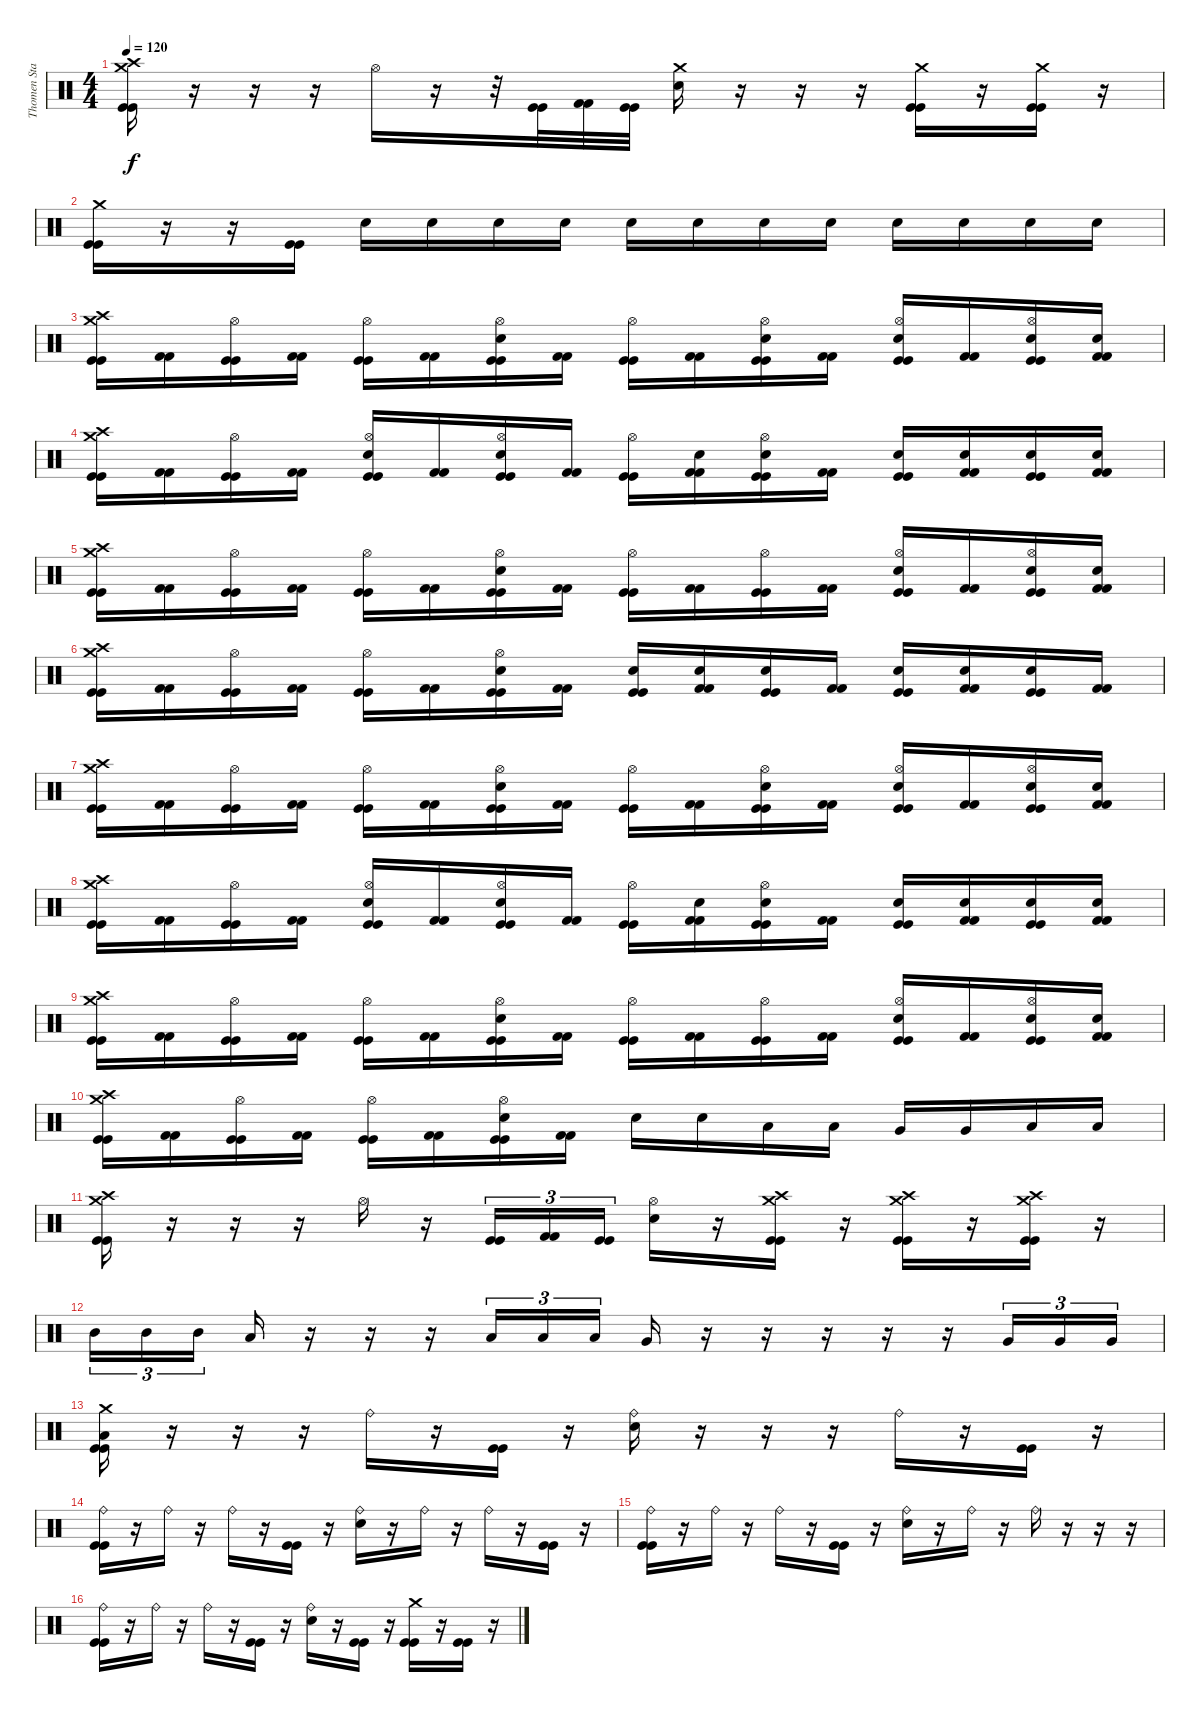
\track ("Thomen Stauch" "Thomen Sta") {instrument percussion}
\staff {score}
\articulation defaults
\ts (4 4)
\tempo 120
\clef neutral
\ks c
("Crash medium (hit)" "Crash high (hit)" "Kick (hit)" "Kick (hit)").16{dy f} r.16 r.16 r.16 "Hi-Hat (open)".16 r.16 r.32 ("Kick (hit)" "Kick (hit)").32 ("Kick (hit) 2" "Kick (hit) 2").32 ("Kick (hit)" "Kick (hit)").32 ("Crash medium (hit)" "Snare (hit) 2").16 r.16 r.16 r.16 ("Crash medium (hit)" "Kick (hit)" "Kick (hit)").16 r.16 ("Crash medium (hit)" "Kick (hit)" "Kick (hit)").16 r.16 |
("Crash medium (hit)" "Kick (hit)" "Kick (hit)").16 r.16 r.16 ("Kick (hit)" "Kick (hit)").16 "Snare (hit) 2".16 "Snare (hit) 2".16 "Snare (hit) 2".16 "Snare (hit) 2".16 "Snare (hit) 2".16 "Snare (hit) 2".16 "Snare (hit) 2".16 "Snare (hit) 2".16 "Snare (hit) 2".16 "Snare (hit) 2".16 "Snare (hit) 2".16 "Snare (hit) 2".16 |
("Crash medium (hit)" "Crash high (hit)" "Kick (hit)" "Kick (hit)").16 ("Kick (hit) 2" "Kick (hit) 2").16 ("Hi-Hat (open)" "Kick (hit)" "Kick (hit)").16 ("Kick (hit) 2" "Kick (hit) 2").16 ("Hi-Hat (open)" "Kick (hit)" "Kick (hit)").16 ("Kick (hit) 2" "Kick (hit) 2").16 ("Hi-Hat (open)" "Snare (hit) 2" "Kick (hit)" "Kick (hit)").16 ("Kick (hit) 2" "Kick (hit) 2").16 ("Hi-Hat (open)" "Kick (hit)" "Kick (hit)").16 ("Kick (hit) 2" "Kick (hit) 2").16 ("Hi-Hat (open)" "Snare (hit) 2" "Kick (hit)" "Kick (hit)").16 ("Kick (hit) 2" "Kick (hit) 2").16 ("Hi-Hat (open)" "Snare (hit) 2" "Kick (hit)" "Kick (hit)").16 ("Kick (hit) 2" "Kick (hit) 2").16 ("Hi-Hat (open)" "Snare (hit) 2" "Kick (hit)" "Kick (hit)").16 ("Snare (hit) 2" "Kick (hit) 2" "Kick (hit) 2").16 |
("Crash medium (hit)" "Crash high (hit)" "Kick (hit)" "Kick (hit)").16 ("Kick (hit) 2" "Kick (hit) 2").16 ("Hi-Hat (open)" "Kick (hit)" "Kick (hit)").16 ("Kick (hit) 2" "Kick (hit) 2").16 ("Hi-Hat (open)" "Snare (hit) 2" "Kick (hit)" "Kick (hit)").16 ("Kick (hit) 2" "Kick (hit) 2").16 ("Hi-Hat (open)" "Snare (hit) 2" "Kick (hit)" "Kick (hit)").16 ("Kick (hit) 2" "Kick (hit) 2").16 ("Hi-Hat (open)" "Kick (hit)" "Kick (hit)").16 ("Snare (hit) 2" "Kick (hit) 2" "Kick (hit) 2").16 ("Hi-Hat (open)" "Snare (hit) 2" "Kick (hit)" "Kick (hit)").16 ("Kick (hit) 2" "Kick (hit) 2").16 ("Snare (hit) 2" "Kick (hit)" "Kick (hit)").16 ("Snare (hit) 2" "Kick (hit) 2" "Kick (hit) 2").16 ("Snare (hit) 2" "Kick (hit)" "Kick (hit)").16 ("Snare (hit) 2" "Kick (hit) 2" "Kick (hit) 2").16 |
("Crash medium (hit)" "Crash high (hit)" "Kick (hit)" "Kick (hit)").16 ("Kick (hit) 2" "Kick (hit) 2").16 ("Hi-Hat (open)" "Kick (hit)" "Kick (hit)").16 ("Kick (hit) 2" "Kick (hit) 2").16 ("Hi-Hat (open)" "Kick (hit)" "Kick (hit)").16 ("Kick (hit) 2" "Kick (hit) 2").16 ("Hi-Hat (open)" "Snare (hit) 2" "Kick (hit)" "Kick (hit)").16 ("Kick (hit) 2" "Kick (hit) 2").16 ("Hi-Hat (open)" "Kick (hit)" "Kick (hit)").16 ("Kick (hit) 2" "Kick (hit) 2").16 ("Hi-Hat (open)" "Kick (hit)" "Kick (hit)").16 ("Kick (hit) 2" "Kick (hit) 2").16 ("Hi-Hat (open)" "Snare (hit) 2" "Kick (hit)" "Kick (hit)").16 ("Kick (hit) 2" "Kick (hit) 2").16 ("Hi-Hat (open)" "Snare (hit) 2" "Kick (hit)" "Kick (hit)").16 ("Snare (hit) 2" "Kick (hit) 2" "Kick (hit) 2").16 |
("Crash medium (hit)" "Crash high (hit)" "Kick (hit)" "Kick (hit)").16 ("Kick (hit) 2" "Kick (hit) 2").16 ("Hi-Hat (open)" "Kick (hit)" "Kick (hit)").16 ("Kick (hit) 2" "Kick (hit) 2").16 ("Hi-Hat (open)" "Kick (hit)" "Kick (hit)").16 ("Kick (hit) 2" "Kick (hit) 2").16 ("Hi-Hat (open)" "Snare (hit) 2" "Kick (hit)" "Kick (hit)").16 ("Kick (hit) 2" "Kick (hit) 2").16 ("Snare (hit) 2" "Kick (hit)" "Kick (hit)").16 ("Snare (hit) 2" "Kick (hit) 2" "Kick (hit) 2").16 ("Snare (hit) 2" "Kick (hit)" "Kick (hit)").16 ("Kick (hit) 2" "Kick (hit) 2").16 ("Snare (hit) 2" "Kick (hit)" "Kick (hit)").16 ("Snare (hit) 2" "Kick (hit) 2" "Kick (hit) 2").16 ("Snare (hit) 2" "Kick (hit)" "Kick (hit)").16 ("Kick (hit) 2" "Kick (hit) 2").16 |
("Crash medium (hit)" "Crash high (hit)" "Kick (hit)" "Kick (hit)").16 ("Kick (hit) 2" "Kick (hit) 2").16 ("Hi-Hat (open)" "Kick (hit)" "Kick (hit)").16 ("Kick (hit) 2" "Kick (hit) 2").16 ("Hi-Hat (open)" "Kick (hit)" "Kick (hit)").16 ("Kick (hit) 2" "Kick (hit) 2").16 ("Hi-Hat (open)" "Snare (hit) 2" "Kick (hit)" "Kick (hit)").16 ("Kick (hit) 2" "Kick (hit) 2").16 ("Hi-Hat (open)" "Kick (hit)" "Kick (hit)").16 ("Kick (hit) 2" "Kick (hit) 2").16 ("Hi-Hat (open)" "Snare (hit) 2" "Kick (hit)" "Kick (hit)").16 ("Kick (hit) 2" "Kick (hit) 2").16 ("Hi-Hat (open)" "Snare (hit) 2" "Kick (hit)" "Kick (hit)").16 ("Kick (hit) 2" "Kick (hit) 2").16 ("Hi-Hat (open)" "Snare (hit) 2" "Kick (hit)" "Kick (hit)").16 ("Snare (hit) 2" "Kick (hit) 2" "Kick (hit) 2").16 |
("Crash medium (hit)" "Crash high (hit)" "Kick (hit)" "Kick (hit)").16 ("Kick (hit) 2" "Kick (hit) 2").16 ("Hi-Hat (open)" "Kick (hit)" "Kick (hit)").16 ("Kick (hit) 2" "Kick (hit) 2").16 ("Hi-Hat (open)" "Snare (hit) 2" "Kick (hit)" "Kick (hit)").16 ("Kick (hit) 2" "Kick (hit) 2").16 ("Hi-Hat (open)" "Snare (hit) 2" "Kick (hit)" "Kick (hit)").16 ("Kick (hit) 2" "Kick (hit) 2").16 ("Hi-Hat (open)" "Kick (hit)" "Kick (hit)").16 ("Snare (hit) 2" "Kick (hit) 2" "Kick (hit) 2").16 ("Hi-Hat (open)" "Snare (hit) 2" "Kick (hit)" "Kick (hit)").16 ("Kick (hit) 2" "Kick (hit) 2").16 ("Snare (hit) 2" "Kick (hit)" "Kick (hit)").16 ("Snare (hit) 2" "Kick (hit) 2" "Kick (hit) 2").16 ("Snare (hit) 2" "Kick (hit)" "Kick (hit)").16 ("Snare (hit) 2" "Kick (hit) 2" "Kick (hit) 2").16 |
("Crash medium (hit)" "Crash high (hit)" "Kick (hit)" "Kick (hit)").16 ("Kick (hit) 2" "Kick (hit) 2").16 ("Hi-Hat (open)" "Kick (hit)" "Kick (hit)").16 ("Kick (hit) 2" "Kick (hit) 2").16 ("Hi-Hat (open)" "Kick (hit)" "Kick (hit)").16 ("Kick (hit) 2" "Kick (hit) 2").16 ("Hi-Hat (open)" "Snare (hit) 2" "Kick (hit)" "Kick (hit)").16 ("Kick (hit) 2" "Kick (hit) 2").16 ("Hi-Hat (open)" "Kick (hit)" "Kick (hit)").16 ("Kick (hit) 2" "Kick (hit) 2").16 ("Hi-Hat (open)" "Kick (hit)" "Kick (hit)").16 ("Kick (hit) 2" "Kick (hit) 2").16 ("Hi-Hat (open)" "Snare (hit) 2" "Kick (hit)" "Kick (hit)").16 ("Kick (hit) 2" "Kick (hit) 2").16 ("Hi-Hat (open)" "Snare (hit) 2" "Kick (hit)" "Kick (hit)").16 ("Snare (hit) 2" "Kick (hit) 2" "Kick (hit) 2").16 |
("Crash medium (hit)" "Crash high (hit)" "Kick (hit)" "Kick (hit)").16 ("Kick (hit) 2" "Kick (hit) 2").16 ("Hi-Hat (open)" "Kick (hit)" "Kick (hit)").16 ("Kick (hit) 2" "Kick (hit) 2").16 ("Hi-Hat (open)" "Kick (hit)" "Kick (hit)").16 ("Kick (hit) 2" "Kick (hit) 2").16 ("Hi-Hat (open)" "Snare (hit) 2" "Kick (hit)" "Kick (hit)").16 ("Kick (hit) 2" "Kick (hit) 2").16 "Snare (hit) 2".16 "Snare (hit) 2".16 "Low Tom (hit)".16 "Low Tom (hit)".16 "Very Low Tom (hit)".16 "Very Low Tom (hit)".16 "Low Floor Tom (hit)".16 "Low Floor Tom (hit)".16 |
("Crash medium (hit)" "Crash high (hit)" "Kick (hit)" "Kick (hit)").16 r.16 r.16 r.16 "Hi-Hat (open)".16 r.16 ("Kick (hit)" "Kick (hit)").16{tu (3 2)} ("Kick (hit) 2" "Kick (hit) 2").16{tu (3 2)} ("Kick (hit)" "Kick (hit)").16{tu (3 2)} ("Hi-Hat (open)" "Snare (hit) 2").16 r.16 ("Crash medium (hit)" "Crash high (hit)" "Kick (hit)" "Kick (hit)").16 r.16 ("Crash medium (hit)" "Crash high (hit)" "Kick (hit)" "Kick (hit)").16 r.16 ("Crash medium (hit)" "Crash high (hit)" "Kick (hit)" "Kick (hit)").16 r.16 |
"Mid Tom (hit)".16{tu (3 2)} "Mid Tom (hit)".16{tu (3 2)} "Mid Tom (hit)".16{tu (3 2)} "Low Tom (hit)".16 r.16 r.16 r.16 "Low Tom (hit)".16{tu (3 2)} "Low Tom (hit)".16{tu (3 2)} "Low Tom (hit)".16{tu (3 2)} "Very Low Tom (hit)".16 r.16 r.16 r.16 r.16 r.16 "Very Low Tom (hit)".16{tu (3 2)} "Very Low Tom (hit)".16{tu (3 2)} "Very Low Tom (hit)".16{tu (3 2)} |
("Crash medium (hit)" "Low Floor Tom (hit)" "Kick (hit)" "Kick (hit)").16 r.16 r.16 r.16 "Ride (bell)".16 r.16 ("Kick (hit)" "Kick (hit)").16 r.16 ("Ride (bell)" "Snare (hit) 2").16 r.16 r.16 r.16 "Ride (bell)".16 r.16 ("Kick (hit)" "Kick (hit)").16 r.16 |
("Ride (bell)" "Kick (hit)" "Kick (hit)").16 r.16 "Ride (bell)".16 r.16 "Ride (bell)".16 r.16 ("Kick (hit)" "Kick (hit)").16 r.16 ("Ride (bell)" "Snare (hit) 2").16 r.16 "Ride (bell)".16 r.16 "Ride (bell)".16 r.16 ("Kick (hit)" "Kick (hit)").16 r.16 |
("Ride (bell)" "Kick (hit)" "Kick (hit)").16 r.16 "Ride (bell)".16 r.16 "Ride (bell)".16 r.16 ("Kick (hit)" "Kick (hit)").16 r.16 ("Ride (bell)" "Snare (hit) 2").16 r.16 "Ride (bell)".16 r.16 "Ride (bell)".16 r.16 r.16 r.16 |
("Ride (bell)" "Kick (hit)" "Kick (hit)").16 r.16 "Ride (bell)".16 r.16 "Ride (bell)".16 r.16 ("Kick (hit)" "Kick (hit)").16 r.16 ("Ride (bell)" "Snare (hit) 2").16 r.16 ("Kick (hit)" "Kick (hit)").16 r.16 ("Crash medium (hit)" "Kick (hit)" "Kick (hit)").16 r.16 ("Kick (hit)" "Kick (hit)").16 r.16
